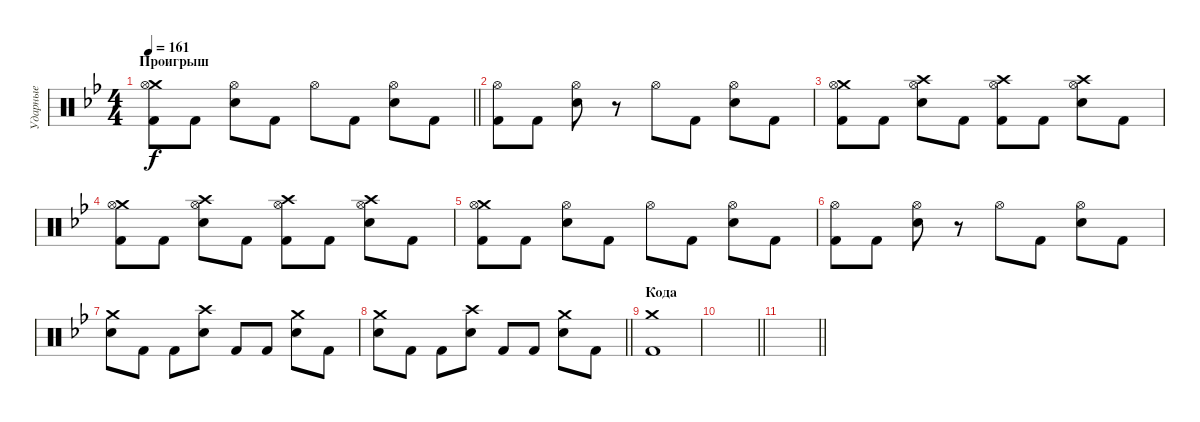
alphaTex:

\track ("Ударные" "Ударные") {instrument percussion}
\staff {score}
\articulation defaults
\ts (4 4)
\section ("" "Проигрыш")
\tempo 161
\clef neutral
\barLineRight lightlight
\ks gminor
("Crash medium (hit)" "Kick (hit) 2" "Hi-Hat (open)").8{dy f} "Kick (hit) 2".8 ("Electric Snare (hit)" "Hi-Hat (open)").8 "Kick (hit) 2".8 "Hi-Hat (open)".8 "Kick (hit) 2".8 ("Electric Snare (hit)" "Hi-Hat (open)").8 "Kick (hit) 2".8 |
("Kick (hit) 2" "Hi-Hat (open)").8 "Kick (hit) 2".8 ("Electric Snare (hit)" "Hi-Hat (open)").8 r.8 "Hi-Hat (open)".8 "Kick (hit) 2".8 ("Electric Snare (hit)" "Hi-Hat (open)").8 "Kick (hit) 2".8 |
("Crash medium (hit)" "Kick (hit) 2" "Hi-Hat (open)").8 "Kick (hit) 2".8 ("Crash high (hit)" "Electric Snare (hit)" "Hi-Hat (open)").8 "Kick (hit) 2".8 ("Crash high (hit)" "Kick (hit) 2" "Hi-Hat (open)").8 "Kick (hit) 2".8 ("Crash high (hit)" "Electric Snare (hit)" "Hi-Hat (open)").8 "Kick (hit) 2".8 |
("Crash medium (hit)" "Kick (hit) 2" "Hi-Hat (open)").8 "Kick (hit) 2".8 ("Crash high (hit)" "Electric Snare (hit)" "Hi-Hat (open)").8 "Kick (hit) 2".8 ("Crash high (hit)" "Kick (hit) 2" "Hi-Hat (open)").8 "Kick (hit) 2".8 ("Crash high (hit)" "Electric Snare (hit)" "Hi-Hat (open)").8 "Kick (hit) 2".8 |
("Crash medium (hit)" "Kick (hit) 2" "Hi-Hat (open)").8 "Kick (hit) 2".8 ("Electric Snare (hit)" "Hi-Hat (open)").8 "Kick (hit) 2".8 "Hi-Hat (open)".8 "Kick (hit) 2".8 ("Electric Snare (hit)" "Hi-Hat (open)").8 "Kick (hit) 2".8 |
("Kick (hit) 2" "Hi-Hat (open)").8 "Kick (hit) 2".8 ("Electric Snare (hit)" "Hi-Hat (open)").8 r.8 "Hi-Hat (open)".8 "Kick (hit) 2".8 ("Electric Snare (hit)" "Hi-Hat (open)").8 "Kick (hit) 2".8 |
("Crash medium (hit)" "Electric Snare (hit)").8 "Kick (hit) 2".8 "Kick (hit) 2".8 ("Crash high (hit)" "Electric Snare (hit)").8 "Kick (hit) 2".8 "Kick (hit) 2".8 ("Crash medium (hit)" "Electric Snare (hit)").8 "Kick (hit) 2".8 |
\barLineRight lightlight
("Crash medium (hit)" "Electric Snare (hit)").8 "Kick (hit) 2".8 "Kick (hit) 2".8 ("Crash high (hit)" "Electric Snare (hit)").8 "Kick (hit) 2".8 "Kick (hit) 2".8 ("Crash medium (hit)" "Electric Snare (hit)").8 "Kick (hit) 2".8 |
\section ("" "Кода")
("Crash medium (hit)" "Kick (hit) 2").1 |
\barLineRight lightlight
|
\barLineRight lightlight
